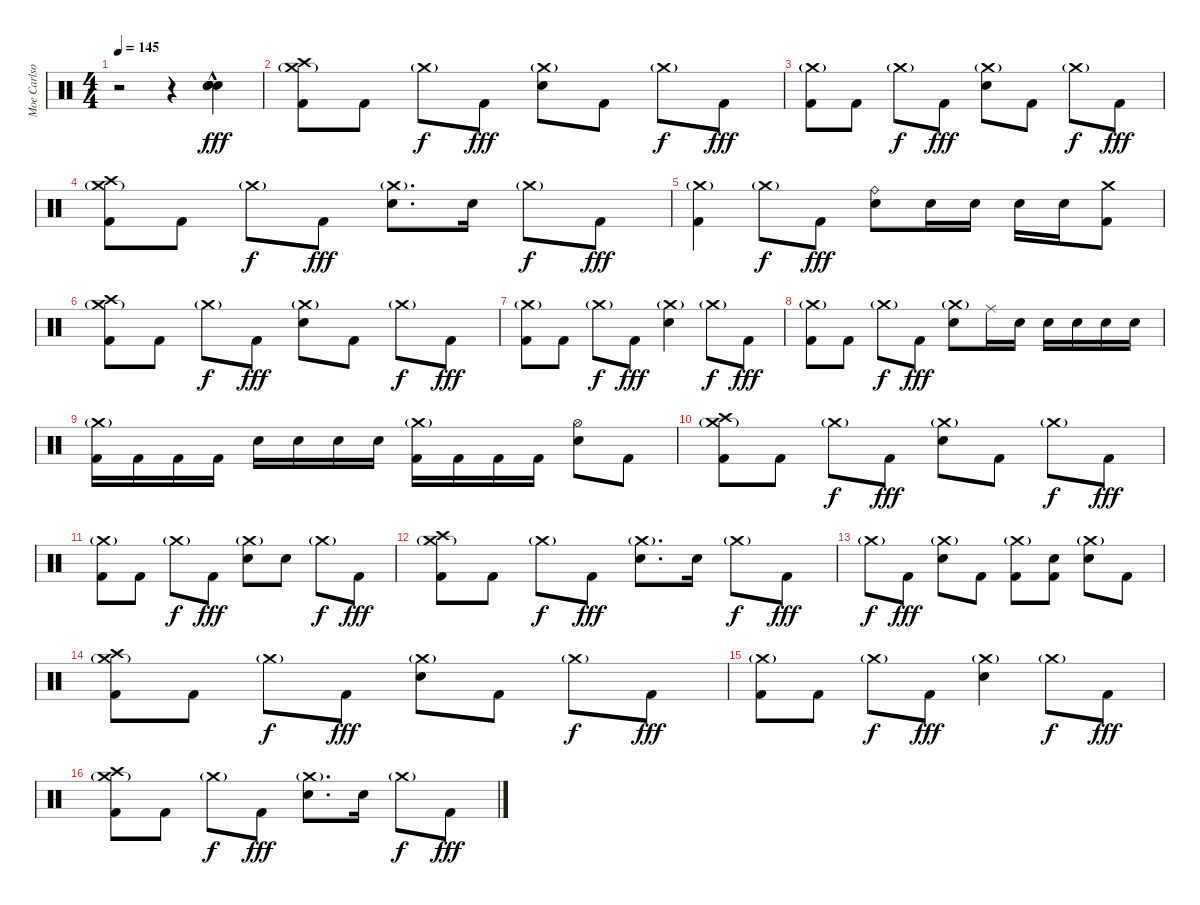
\track ("Moe Carlson" "Moe Carlso") {instrument percussion}
\staff {score}
\articulation defaults
\ts (4 4)
\tempo 145
\clef neutral
\ks c
r.2{dy fff} r.4 ("Snare (hit) 2" "Snare (hit) 2"{hac} "Electric Snare (hit)" "Electric Snare (hit)").4 |
("Crash medium (hit)"{g} "Crash high (hit)" "Kick (hit) 2").8 "Kick (hit) 2".8 "Crash medium (hit)"{g}.8{dy f} "Kick (hit) 2".8{dy fff} ("Crash medium (hit)"{g} "Electric Snare (hit)").8 "Kick (hit) 2".8 "Crash medium (hit)"{g}.8{dy f} "Kick (hit) 2".8{dy fff} |
("Crash medium (hit)"{g} "Kick (hit) 2").8 "Kick (hit) 2".8 "Crash medium (hit)"{g}.8{dy f} "Kick (hit) 2".8{dy fff} ("Crash medium (hit)"{g} "Electric Snare (hit)").8 "Kick (hit) 2".8 "Crash medium (hit)"{g}.8{dy f} "Kick (hit) 2".8{dy fff} |
("Crash medium (hit)"{g} "Crash high (hit)" "Kick (hit) 2").8 "Kick (hit) 2".8 "Crash medium (hit)"{g}.8{dy f} "Kick (hit) 2".8{dy fff} ("Crash medium (hit)"{g} "Electric Snare (hit)").8{d} "Electric Snare (hit)".16 "Crash medium (hit)"{g}.8{dy f} "Kick (hit) 2".8{dy fff} |
("Crash medium (hit)"{g} "Kick (hit) 2").4 "Crash medium (hit)"{g}.8{dy f} "Kick (hit) 2".8{dy fff} ("Ride (bell)" "Electric Snare (hit)").8 "Electric Snare (hit)".16 "Electric Snare (hit)".16 "Electric Snare (hit)".16 "Electric Snare (hit)".16 ("Crash medium (hit)" "Kick (hit) 2").8 |
("Crash medium (hit)"{g} "Crash high (hit)" "Kick (hit) 2").8 "Kick (hit) 2".8 "Crash medium (hit)"{g}.8{dy f} "Kick (hit) 2".8{dy fff} ("Crash medium (hit)"{g} "Electric Snare (hit)").8 "Kick (hit) 2".8 "Crash medium (hit)"{g}.8{dy f} "Kick (hit) 2".8{dy fff} |
("Crash medium (hit)"{g} "Kick (hit) 2").8 "Kick (hit) 2".8 "Crash medium (hit)"{g}.8{dy f} "Kick (hit) 2".8{dy fff} ("Crash medium (hit)"{g} "Electric Snare (hit)").4 "Crash medium (hit)"{g}.8{dy f} "Kick (hit) 2".8{dy fff} |
("Crash medium (hit)"{g} "Kick (hit) 2").8 "Kick (hit) 2".8 "Crash medium (hit)"{g}.8{dy f} "Kick (hit) 2".8{dy fff} ("Crash medium (hit)"{g} "Electric Snare (hit)").8 "Ride (middle)".16 "Electric Snare (hit)".16 "Electric Snare (hit)".16 "Electric Snare (hit)".16 "Electric Snare (hit)".16 "Electric Snare (hit)".16 |
("Crash medium (hit)"{g} "Kick (hit) 2").16 "Kick (hit) 2".16 "Kick (hit) 2".16 "Kick (hit) 2".16 "Electric Snare (hit)".16 "Electric Snare (hit)".16 "Electric Snare (hit)".16 "Electric Snare (hit)".16 ("Crash medium (hit)"{g} "Kick (hit) 2").16 "Kick (hit) 2".16 "Kick (hit) 2".16 "Kick (hit) 2".16 ("Hi-Hat (open)" "Electric Snare (hit)").8 "Kick (hit) 2".8 |
("Crash medium (hit)"{g} "Crash high (hit)" "Kick (hit) 2").8 "Kick (hit) 2".8 "Crash medium (hit)"{g}.8{dy f} "Kick (hit) 2".8{dy fff} ("Crash medium (hit)"{g} "Electric Snare (hit)").8 "Kick (hit) 2".8 "Crash medium (hit)"{g}.8{dy f} "Kick (hit) 2".8{dy fff} |
("Crash medium (hit)"{g} "Kick (hit) 2").8 "Kick (hit) 2".8 "Crash medium (hit)"{g}.8{dy f} "Kick (hit) 2".8{dy fff} ("Crash medium (hit)"{g} "Electric Snare (hit)").8 "Electric Snare (hit)".8 "Crash medium (hit)"{g}.8{dy f} "Kick (hit) 2".8{dy fff} |
("Crash medium (hit)"{g} "Crash high (hit)" "Kick (hit) 2").8 "Kick (hit) 2".8 "Crash medium (hit)"{g}.8{dy f} "Kick (hit) 2".8{dy fff} ("Crash medium (hit)"{g} "Electric Snare (hit)").8{d} "Electric Snare (hit)".16 "Crash medium (hit)"{g}.8{dy f} "Kick (hit) 2".8{dy fff} |
"Crash medium (hit)"{g}.8{dy f} "Kick (hit) 2".8{dy fff} ("Crash medium (hit)"{g} "Electric Snare (hit)").8 "Kick (hit) 2".8 ("Crash medium (hit)"{g} "Kick (hit) 2").8 ("Electric Snare (hit)" "Kick (hit) 2").8 ("Crash medium (hit)"{g} "Electric Snare (hit)").8 "Kick (hit) 2".8 |
("Crash medium (hit)"{g} "Crash high (hit)" "Kick (hit) 2").8 "Kick (hit) 2".8 "Crash medium (hit)"{g}.8{dy f} "Kick (hit) 2".8{dy fff} ("Crash medium (hit)"{g} "Electric Snare (hit)").8 "Kick (hit) 2".8 "Crash medium (hit)"{g}.8{dy f} "Kick (hit) 2".8{dy fff} |
("Crash medium (hit)"{g} "Kick (hit) 2").8 "Kick (hit) 2".8 "Crash medium (hit)"{g}.8{dy f} "Kick (hit) 2".8{dy fff} ("Crash medium (hit)"{g} "Electric Snare (hit)").4 "Crash medium (hit)"{g}.8{dy f} "Kick (hit) 2".8{dy fff} |
("Crash medium (hit)"{g} "Crash high (hit)" "Kick (hit) 2").8 "Kick (hit) 2".8 "Crash medium (hit)"{g}.8{dy f} "Kick (hit) 2".8{dy fff} ("Crash medium (hit)"{g} "Electric Snare (hit)").8{d} "Electric Snare (hit)".16 "Crash medium (hit)"{g}.8{dy f} "Kick (hit) 2".8{dy fff}
